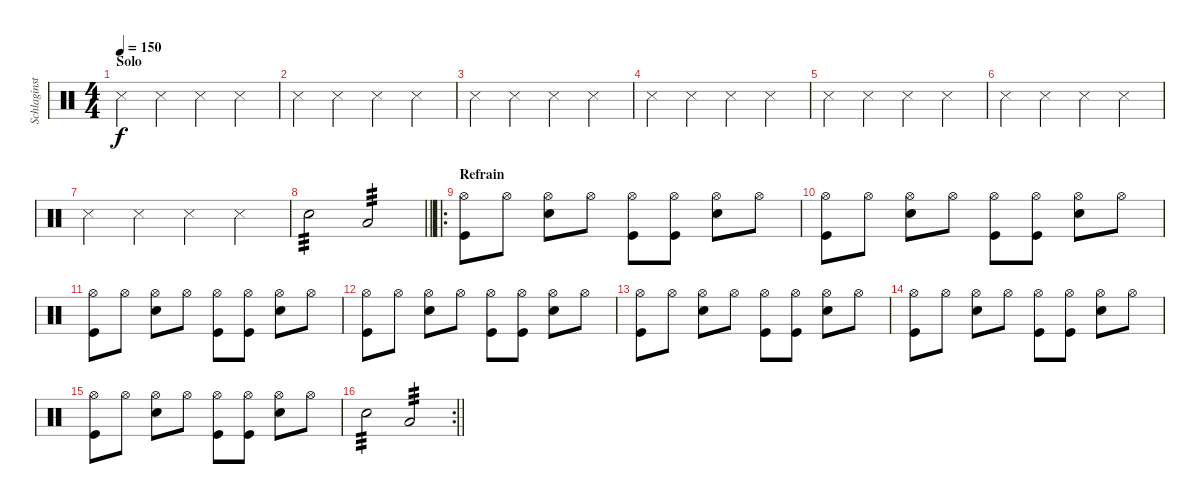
\track ("Schlaginstrumente - Auswahl" "Schlaginst") {instrument percussion}
\staff {score}
\articulation defaults
\ts (4 4)
\section ("" "Solo")
\tempo 150
\clef neutral
\ks c "Snare (side stick) 3".4{dy f} "Snare (side stick) 3".4 "Snare (side stick) 3".4 "Snare (side stick) 3".4
|
"Snare (side stick) 3".4 "Snare (side stick) 3".4 "Snare (side stick) 3".4 "Snare (side stick) 3".4 |
"Snare (side stick) 3".4 "Snare (side stick) 3".4 "Snare (side stick) 3".4 "Snare (side stick) 3".4 |
"Snare (side stick) 3".4 "Snare (side stick) 3".4 "Snare (side stick) 3".4 "Snare (side stick) 3".4 |
"Snare (side stick) 3".4 "Snare (side stick) 3".4 "Snare (side stick) 3".4 "Snare (side stick) 3".4 |
"Snare (side stick) 3".4 "Snare (side stick) 3".4 "Snare (side stick) 3".4 "Snare (side stick) 3".4 |
"Snare (side stick) 3".4 "Snare (side stick) 3".4 "Snare (side stick) 3".4 "Snare (side stick) 3".4 |
\barLineRight lightlight "Electric Snare (hit)".2{tp 3} "Low Tom (hit)".2{tp 3}
|
\ro
\section ("" "Refrain")
("Hi-Hat (open)" "Kick (hit)").8 "Hi-Hat (open)".8 ("Hi-Hat (open)" "Electric Snare (hit)").8 "Hi-Hat (open)".8 ("Hi-Hat (open)" "Kick (hit)").8 ("Hi-Hat (open)" "Kick (hit)").8 ("Hi-Hat (open)" "Electric Snare (hit)").8 "Hi-Hat (open)".8 |
("Hi-Hat (open)" "Kick (hit)").8 "Hi-Hat (open)".8 ("Hi-Hat (open)" "Electric Snare (hit)").8 "Hi-Hat (open)".8 ("Hi-Hat (open)" "Kick (hit)").8 ("Hi-Hat (open)" "Kick (hit)").8 ("Hi-Hat (open)" "Electric Snare (hit)").8 "Hi-Hat (open)".8 |
("Hi-Hat (open)" "Kick (hit)").8 "Hi-Hat (open)".8 ("Hi-Hat (open)" "Electric Snare (hit)").8 "Hi-Hat (open)".8 ("Hi-Hat (open)" "Kick (hit)").8 ("Hi-Hat (open)" "Kick (hit)").8 ("Hi-Hat (open)" "Electric Snare (hit)").8 "Hi-Hat (open)".8 |
("Hi-Hat (open)" "Kick (hit)").8 "Hi-Hat (open)".8 ("Hi-Hat (open)" "Electric Snare (hit)").8 "Hi-Hat (open)".8 ("Hi-Hat (open)" "Kick (hit)").8 ("Hi-Hat (open)" "Kick (hit)").8 ("Hi-Hat (open)" "Electric Snare (hit)").8 "Hi-Hat (open)".8 |
("Hi-Hat (open)" "Kick (hit)").8 "Hi-Hat (open)".8 ("Hi-Hat (open)" "Electric Snare (hit)").8 "Hi-Hat (open)".8 ("Hi-Hat (open)" "Kick (hit)").8 ("Hi-Hat (open)" "Kick (hit)").8 ("Hi-Hat (open)" "Electric Snare (hit)").8 "Hi-Hat (open)".8 |
("Hi-Hat (open)" "Kick (hit)").8 "Hi-Hat (open)".8 ("Hi-Hat (open)" "Electric Snare (hit)").8 "Hi-Hat (open)".8 ("Hi-Hat (open)" "Kick (hit)").8 ("Hi-Hat (open)" "Kick (hit)").8 ("Hi-Hat (open)" "Electric Snare (hit)").8 "Hi-Hat (open)".8 |
("Hi-Hat (open)" "Kick (hit)").8 "Hi-Hat (open)".8 ("Hi-Hat (open)" "Electric Snare (hit)").8 "Hi-Hat (open)".8 ("Hi-Hat (open)" "Kick (hit)").8 ("Hi-Hat (open)" "Kick (hit)").8 ("Hi-Hat (open)" "Electric Snare (hit)").8 "Hi-Hat (open)".8 |
\rc 2
\barLineRight lightlight "Electric Snare (hit)".2{tp 3} "Low Tom (hit)".2{tp 3}
